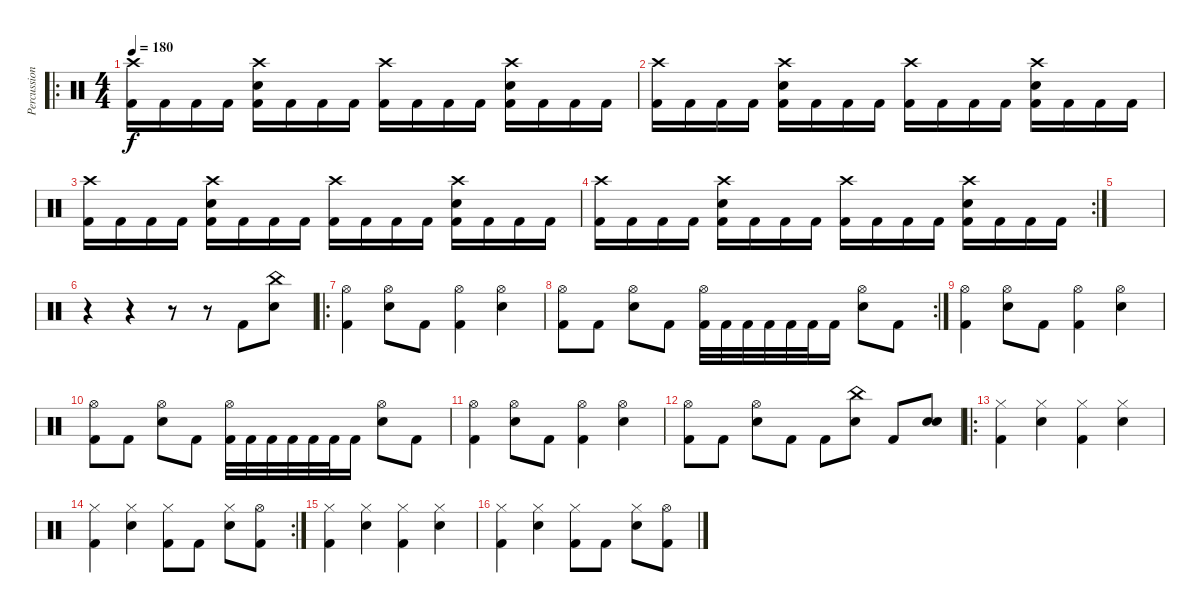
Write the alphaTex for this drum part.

\track ("Percussions" "Percussion") {instrument percussion}
\staff {score}
\articulation defaults
\ro
\ts (4 4)
\tempo 180
\clef neutral
\ks c
("Crash high (hit)" "Kick (hit) 2").16{dy f} "Kick (hit) 2".16 "Kick (hit) 2".16 "Kick (hit) 2".16 ("Crash high (hit)" "Snare (hit) 2" "Kick (hit) 2").16 "Kick (hit) 2".16 "Kick (hit) 2".16 "Kick (hit) 2".16 ("Crash high (hit)" "Kick (hit) 2").16 "Kick (hit) 2".16 "Kick (hit) 2".16 "Kick (hit) 2".16 ("Crash high (hit)" "Snare (hit) 2" "Kick (hit) 2").16 "Kick (hit) 2".16 "Kick (hit) 2".16 "Kick (hit) 2".16 |
("Crash high (hit)" "Kick (hit) 2").16 "Kick (hit) 2".16 "Kick (hit) 2".16 "Kick (hit) 2".16 ("Crash high (hit)" "Snare (hit) 2" "Kick (hit) 2").16 "Kick (hit) 2".16 "Kick (hit) 2".16 "Kick (hit) 2".16 ("Crash high (hit)" "Kick (hit) 2").16 "Kick (hit) 2".16 "Kick (hit) 2".16 "Kick (hit) 2".16 ("Crash high (hit)" "Snare (hit) 2" "Kick (hit) 2").16 "Kick (hit) 2".16 "Kick (hit) 2".16 "Kick (hit) 2".16 |
("Crash high (hit)" "Kick (hit) 2").16 "Kick (hit) 2".16 "Kick (hit) 2".16 "Kick (hit) 2".16 ("Crash high (hit)" "Snare (hit) 2" "Kick (hit) 2").16 "Kick (hit) 2".16 "Kick (hit) 2".16 "Kick (hit) 2".16 ("Crash high (hit)" "Kick (hit) 2").16 "Kick (hit) 2".16 "Kick (hit) 2".16 "Kick (hit) 2".16 ("Crash high (hit)" "Snare (hit) 2" "Kick (hit) 2").16 "Kick (hit) 2".16 "Kick (hit) 2".16 "Kick (hit) 2".16 |
\rc 2
("Crash high (hit)" "Kick (hit) 2").16 "Kick (hit) 2".16 "Kick (hit) 2".16 "Kick (hit) 2".16 ("Crash high (hit)" "Snare (hit) 2" "Kick (hit) 2").16 "Kick (hit) 2".16 "Kick (hit) 2".16 "Kick (hit) 2".16 ("Crash high (hit)" "Kick (hit) 2").16 "Kick (hit) 2".16 "Kick (hit) 2".16 "Kick (hit) 2".16 ("Crash high (hit)" "Snare (hit) 2" "Kick (hit) 2").16 "Kick (hit) 2".16 "Kick (hit) 2".16 "Kick (hit) 2".16 |
|
r.4 r.4 r.8 r.8 "Kick (hit) 2".8 ("China (hit)" "Snare (hit) 2").8 |
\ro
("Hi-Hat (open)" "Kick (hit) 2").4 ("Hi-Hat (open)" "Snare (hit) 2").8 "Kick (hit) 2".8 ("Hi-Hat (open)" "Kick (hit) 2").4 ("Hi-Hat (open)" "Snare (hit) 2").4 |
\rc 2
("Hi-Hat (open)" "Kick (hit) 2").8 "Kick (hit) 2".8 ("Hi-Hat (open)" "Snare (hit) 2").8 "Kick (hit) 2".8 ("Hi-Hat (open)" "Kick (hit) 2").32 "Kick (hit) 2".32 "Kick (hit) 2".32 "Kick (hit) 2".32 "Kick (hit) 2".32 "Kick (hit) 2".32 "Kick (hit) 2".16 ("Hi-Hat (open)" "Snare (hit) 2").8 "Kick (hit) 2".8 |
("Hi-Hat (open)" "Kick (hit) 2").4 ("Hi-Hat (open)" "Snare (hit) 2").8 "Kick (hit) 2".8 ("Hi-Hat (open)" "Kick (hit) 2").4 ("Hi-Hat (open)" "Snare (hit) 2").4 |
("Hi-Hat (open)" "Kick (hit) 2").8 "Kick (hit) 2".8 ("Hi-Hat (open)" "Snare (hit) 2").8 "Kick (hit) 2".8 ("Hi-Hat (open)" "Kick (hit) 2").32 "Kick (hit) 2".32 "Kick (hit) 2".32 "Kick (hit) 2".32 "Kick (hit) 2".32 "Kick (hit) 2".32 "Kick (hit) 2".16 ("Hi-Hat (open)" "Snare (hit) 2").8 "Kick (hit) 2".8 |
("Hi-Hat (open)" "Kick (hit) 2").4 ("Hi-Hat (open)" "Snare (hit) 2").8 "Kick (hit) 2".8 ("Hi-Hat (open)" "Kick (hit) 2").4 ("Hi-Hat (open)" "Snare (hit) 2").4 |
("Hi-Hat (open)" "Kick (hit) 2").8 "Kick (hit) 2".8 ("Hi-Hat (open)" "Snare (hit) 2").8 "Kick (hit) 2".8 "Kick (hit) 2".8 ("China (hit)" "Snare (hit) 2").8 "Kick (hit) 2".8 ("Snare (hit) 2" "Snare (hit) 2").8{bd 240} |
\ro
("Hi-Hat (closed)" "Kick (hit) 2").4 ("Hi-Hat (closed)" "Snare (hit) 2").4 ("Hi-Hat (closed)" "Kick (hit) 2").4 ("Hi-Hat (closed)" "Snare (hit) 2").4 |
\rc 2
("Hi-Hat (closed)" "Kick (hit) 2").4 ("Hi-Hat (closed)" "Snare (hit) 2").4 ("Hi-Hat (closed)" "Kick (hit) 2").8 "Kick (hit) 2".8 ("Hi-Hat (closed)" "Snare (hit) 2").8 ("Hi-Hat (open)" "Kick (hit) 2").8 |
("Hi-Hat (closed)" "Kick (hit) 2").4 ("Hi-Hat (closed)" "Snare (hit) 2").4 ("Hi-Hat (closed)" "Kick (hit) 2").4 ("Hi-Hat (closed)" "Snare (hit) 2").4 |
("Hi-Hat (closed)" "Kick (hit) 2").4 ("Hi-Hat (closed)" "Snare (hit) 2").4 ("Hi-Hat (closed)" "Kick (hit) 2").8 "Kick (hit) 2".8 ("Hi-Hat (closed)" "Snare (hit) 2").8 ("Hi-Hat (open)" "Kick (hit) 2").8
